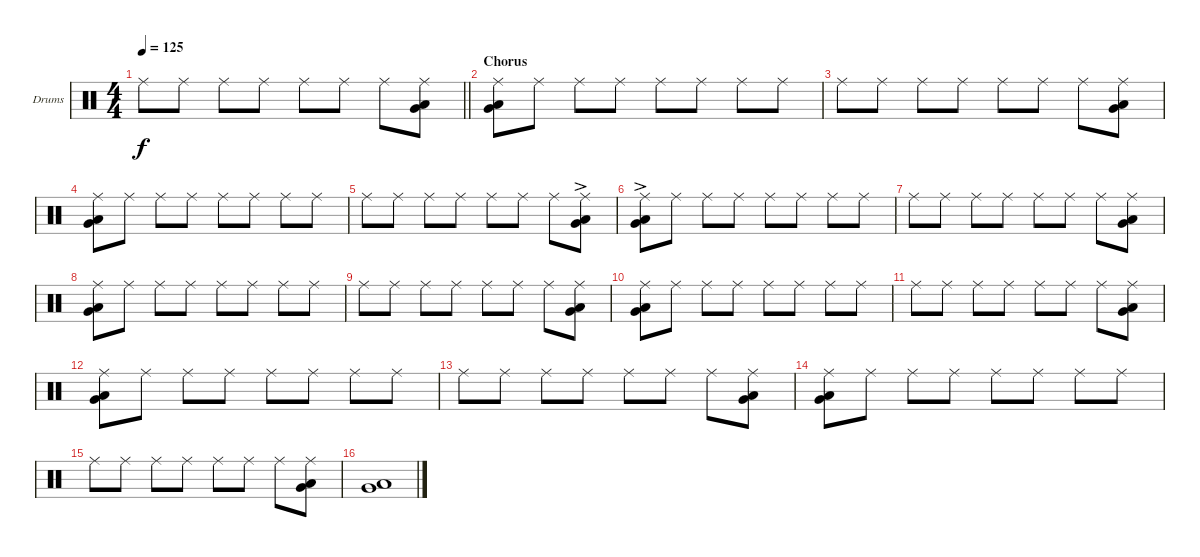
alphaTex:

\bracketExtendMode groupsimilarinstruments
\firstSystemTrackNameOrientation horizontal
\otherSystemsTrackNameOrientation horizontal
\track ("Drumkit" "Drums") {instrument percussion}
\staff {score}
\articulation defaults
\ts (4 4)
\tempo 125
\clef neutral
\barLineRight lightlight
\ks c "Ride (middle)".8{dy f} "Ride (middle)".8 "Ride (middle)".8 "Ride (middle)".8 "Ride (middle)".8 "Ride (middle)".8 "Ride (middle)".8
("Ride (middle)" "Low Tom (hit)" "Very Low Tom (hit)").8 |
\section ("" "Chorus")
("Ride (middle)" "Low Tom (hit)" "Very Low Tom (hit)").8 "Ride (middle)".8 "Ride (middle)".8 "Ride (middle)".8 "Ride (middle)".8 "Ride (middle)".8 "Ride (middle)".8 "Ride (middle)".8 |
"Ride (middle)".8 "Ride (middle)".8 "Ride (middle)".8 "Ride (middle)".8 "Ride (middle)".8 "Ride (middle)".8 "Ride (middle)".8 ("Ride (middle)" "Low Tom (hit)" "Very Low Tom (hit)").8 |
("Ride (middle)" "Low Tom (hit)" "Very Low Tom (hit)").8 "Ride (middle)".8 "Ride (middle)".8 "Ride (middle)".8 "Ride (middle)".8 "Ride (middle)".8 "Ride (middle)".8 "Ride (middle)".8 |
"Ride (middle)".8 "Ride (middle)".8 "Ride (middle)".8 "Ride (middle)".8 "Ride (middle)".8 "Ride (middle)".8 "Ride (middle)".8 ("Ride (middle)" "Low Tom (hit)"{ac} "Very Low Tom (hit)"{ac}).8 |
("Ride (middle)" "Low Tom (hit)"{ac} "Very Low Tom (hit)"{ac}).8 "Ride (middle)".8 "Ride (middle)".8 "Ride (middle)".8 "Ride (middle)".8 "Ride (middle)".8 "Ride (middle)".8 "Ride (middle)".8 |
"Ride (middle)".8 "Ride (middle)".8 "Ride (middle)".8 "Ride (middle)".8 "Ride (middle)".8 "Ride (middle)".8 "Ride (middle)".8 ("Ride (middle)" "Low Tom (hit)" "Very Low Tom (hit)").8 |
("Ride (middle)" "Low Tom (hit)" "Very Low Tom (hit)").8 "Ride (middle)".8 "Ride (middle)".8 "Ride (middle)".8 "Ride (middle)".8 "Ride (middle)".8 "Ride (middle)".8 "Ride (middle)".8 |
"Ride (middle)".8 "Ride (middle)".8 "Ride (middle)".8 "Ride (middle)".8 "Ride (middle)".8 "Ride (middle)".8 "Ride (middle)".8 ("Ride (middle)" "Low Tom (hit)" "Very Low Tom (hit)").8 |
("Ride (middle)" "Low Tom (hit)" "Very Low Tom (hit)").8 "Ride (middle)".8 "Ride (middle)".8 "Ride (middle)".8 "Ride (middle)".8 "Ride (middle)".8 "Ride (middle)".8 "Ride (middle)".8 |
"Ride (middle)".8 "Ride (middle)".8 "Ride (middle)".8 "Ride (middle)".8 "Ride (middle)".8 "Ride (middle)".8 "Ride (middle)".8 ("Ride (middle)" "Low Tom (hit)" "Very Low Tom (hit)").8 |
("Ride (middle)" "Low Tom (hit)" "Very Low Tom (hit)").8 "Ride (middle)".8 "Ride (middle)".8 "Ride (middle)".8 "Ride (middle)".8 "Ride (middle)".8 "Ride (middle)".8 "Ride (middle)".8 |
"Ride (middle)".8 "Ride (middle)".8 "Ride (middle)".8 "Ride (middle)".8 "Ride (middle)".8 "Ride (middle)".8 "Ride (middle)".8 ("Ride (middle)" "Low Tom (hit)" "Very Low Tom (hit)").8 |
("Ride (middle)" "Low Tom (hit)" "Very Low Tom (hit)").8 "Ride (middle)".8 "Ride (middle)".8 "Ride (middle)".8 "Ride (middle)".8 "Ride (middle)".8 "Ride (middle)".8 "Ride (middle)".8 |
"Ride (middle)".8 "Ride (middle)".8 "Ride (middle)".8 "Ride (middle)".8 "Ride (middle)".8 "Ride (middle)".8 "Ride (middle)".8 ("Ride (middle)" "Low Tom (hit)" "Very Low Tom (hit)").8 |
("Low Tom (hit)" "Very Low Tom (hit)").1
